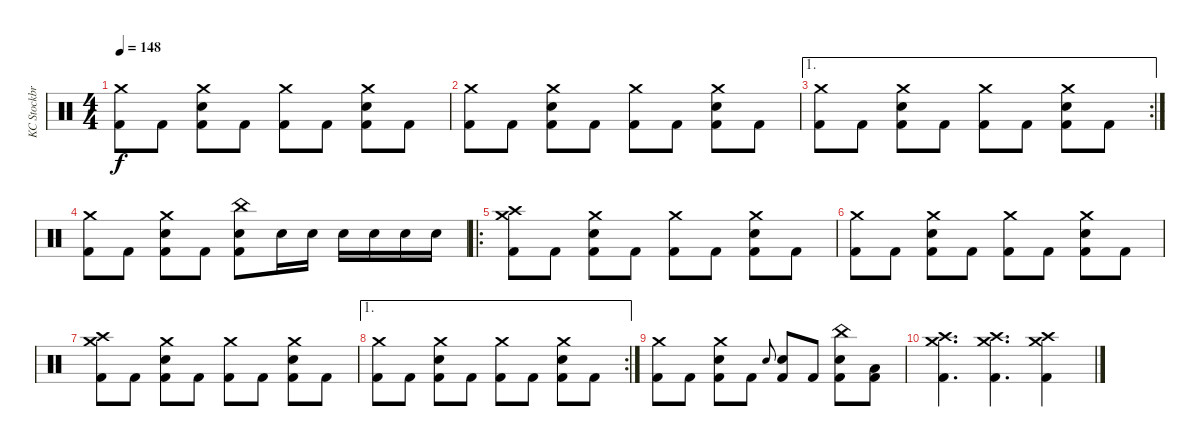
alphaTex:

\track ("KC Stockbridge" "KC Stockbr") {instrument percussion}
\staff {score}
\articulation defaults
\ts (4 4)
\tempo 148
\clef neutral
\ks c
("Crash medium (hit)" "Kick (hit) 2").8{dy f} "Kick (hit) 2".8 ("Crash medium (hit)" "Electric Snare (hit)" "Kick (hit) 2").8 "Kick (hit) 2".8 ("Crash medium (hit)" "Kick (hit) 2").8 "Kick (hit) 2".8 ("Crash medium (hit)" "Electric Snare (hit)" "Kick (hit) 2").8 "Kick (hit) 2".8 |
("Crash medium (hit)" "Kick (hit) 2").8 "Kick (hit) 2".8 ("Crash medium (hit)" "Electric Snare (hit)" "Kick (hit) 2").8 "Kick (hit) 2".8 ("Crash medium (hit)" "Kick (hit) 2").8 "Kick (hit) 2".8 ("Crash medium (hit)" "Electric Snare (hit)" "Kick (hit) 2").8 "Kick (hit) 2".8 |
\ae 1
\rc 2
("Crash medium (hit)" "Kick (hit) 2").8 "Kick (hit) 2".8 ("Crash medium (hit)" "Electric Snare (hit)" "Kick (hit) 2").8 "Kick (hit) 2".8 ("Crash medium (hit)" "Kick (hit) 2").8 "Kick (hit) 2".8 ("Crash medium (hit)" "Electric Snare (hit)" "Kick (hit) 2").8 "Kick (hit) 2".8 |
("Crash medium (hit)" "Kick (hit) 2").8 "Kick (hit) 2".8 ("Crash medium (hit)" "Electric Snare (hit)" "Kick (hit) 2").8 "Kick (hit) 2".8 ("China (hit)" "Electric Snare (hit)" "Kick (hit) 2").8 "Electric Snare (hit)".16 "Electric Snare (hit)".16 "Electric Snare (hit)".16 "Electric Snare (hit)".16 "Electric Snare (hit)".16 "Electric Snare (hit)".16 |
\ro
("Crash medium (hit)" "Crash high (hit)" "Kick (hit) 2").8 "Kick (hit) 2".8 ("Crash medium (hit)" "Electric Snare (hit)" "Kick (hit) 2").8 "Kick (hit) 2".8 ("Crash medium (hit)" "Kick (hit) 2").8 "Kick (hit) 2".8 ("Crash medium (hit)" "Electric Snare (hit)" "Kick (hit) 2").8 "Kick (hit) 2".8 |
("Crash medium (hit)" "Kick (hit) 2").8 "Kick (hit) 2".8 ("Crash medium (hit)" "Electric Snare (hit)" "Kick (hit) 2").8 "Kick (hit) 2".8 ("Crash medium (hit)" "Kick (hit) 2").8 "Kick (hit) 2".8 ("Crash medium (hit)" "Electric Snare (hit)" "Kick (hit) 2").8 "Kick (hit) 2".8 |
("Crash medium (hit)" "Crash high (hit)" "Kick (hit) 2").8 "Kick (hit) 2".8 ("Crash medium (hit)" "Electric Snare (hit)" "Kick (hit) 2").8 "Kick (hit) 2".8 ("Crash medium (hit)" "Kick (hit) 2").8 "Kick (hit) 2".8 ("Crash medium (hit)" "Electric Snare (hit)" "Kick (hit) 2").8 "Kick (hit) 2".8 |
\ae 1
\rc 2
("Crash medium (hit)" "Kick (hit) 2").8 "Kick (hit) 2".8 ("Crash medium (hit)" "Electric Snare (hit)" "Kick (hit) 2").8 "Kick (hit) 2".8 ("Crash medium (hit)" "Kick (hit) 2").8 "Kick (hit) 2".8 ("Crash medium (hit)" "Electric Snare (hit)" "Kick (hit) 2").8 "Kick (hit) 2".8 |
("Crash medium (hit)" "Kick (hit) 2").8 "Kick (hit) 2".8 ("Crash medium (hit)" "Electric Snare (hit)" "Kick (hit) 2").8 "Kick (hit) 2".8 "Electric Snare (hit)".8{gr onbeat} ("Electric Snare (hit)" "Kick (hit) 2").8 "Kick (hit) 2".8 ("China (hit)" "Electric Snare (hit)" "Kick (hit) 2").8 ("Low Tom (hit)" "Kick (hit) 2").8 |
("Crash high (hit)" "Crash medium (hit)" "Kick (hit) 2").4{d} ("Crash high (hit)" "Crash medium (hit)" "Kick (hit) 2").4{d} ("Crash high (hit)" "Crash medium (hit)" "Kick (hit) 2").4
